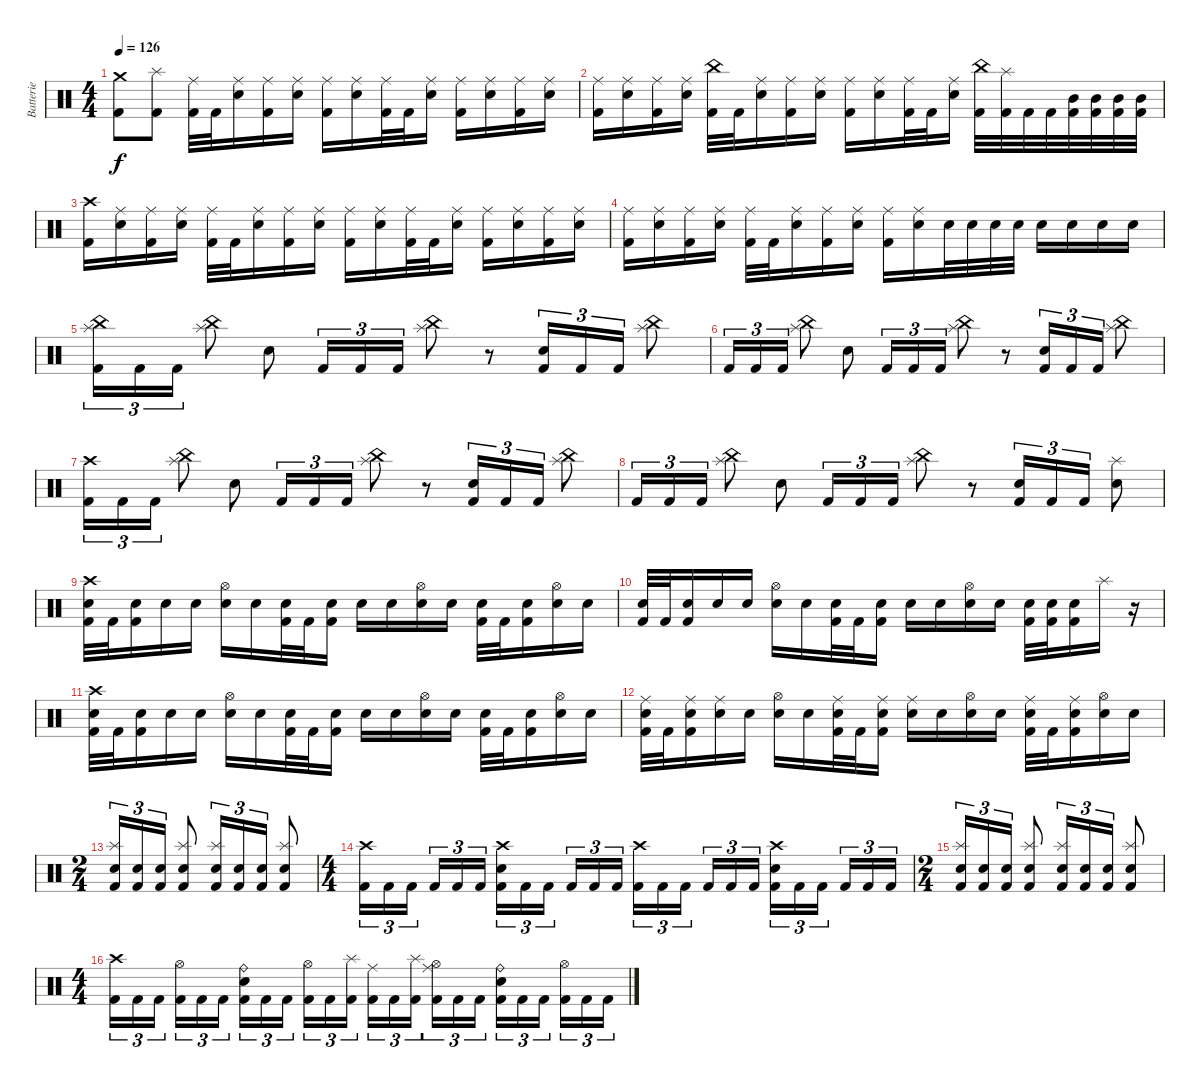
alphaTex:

\track ("Batterie" "Batterie") {instrument percussion}
\staff {score}
\articulation defaults
\ts (4 4)
\tempo 126
\clef neutral
\ks c
("Crash medium (hit)" "Kick (hit) 2").8{dy f} ("Splash (hit)" "Kick (hit) 2").8 ("Ride (middle)" "Kick (hit) 2").32 "Kick (hit) 2".32 ("Ride (middle)" "Electric Snare (hit)").16 ("Ride (middle)" "Kick (hit) 2").16 ("Ride (middle)" "Electric Snare (hit)").16 ("Ride (middle)" "Kick (hit) 2").16 ("Ride (middle)" "Electric Snare (hit)").16 ("Ride (middle)" "Kick (hit) 2").32 "Kick (hit) 2".32 ("Ride (middle)" "Electric Snare (hit)").16 ("Ride (middle)" "Kick (hit) 2").16 ("Ride (middle)" "Electric Snare (hit)").16 ("Ride (middle)" "Kick (hit) 2").16 ("Ride (middle)" "Electric Snare (hit)").16 |
("Ride (middle)" "Kick (hit) 2").16 ("Electric Snare (hit)" "Ride (middle)").16 ("Ride (middle)" "Kick (hit) 2").16 ("Ride (middle)" "Electric Snare (hit)").16 ("China (hit)" "Kick (hit) 2").32 "Kick (hit) 2".32 ("Ride (middle)" "Electric Snare (hit)").16 ("Ride (middle)" "Kick (hit) 2").16 ("Ride (middle)" "Electric Snare (hit)").16 ("Ride (middle)" "Kick (hit) 2").16 ("Ride (middle)" "Electric Snare (hit)").16 ("Kick (hit) 2" "Ride (middle)").32 "Kick (hit) 2".32 ("Ride (middle)" "Electric Snare (hit)").16 ("China (hit)" "Kick (hit) 2").32 ("Splash (hit)" "Kick (hit) 2").32 "Kick (hit) 2".32 "Kick (hit) 2".32 ("Mid Tom (hit)" "Kick (hit) 2").32 ("Mid Tom (hit)" "Kick (hit) 2").32 ("Mid Tom (hit)" "Kick (hit) 2").32 ("Mid Tom (hit)" "Kick (hit) 2").32 |
("Crash high (hit)" "Kick (hit) 2").16 ("Ride (middle)" "Electric Snare (hit)").16 ("Ride (middle)" "Kick (hit) 2").16 ("Ride (middle)" "Electric Snare (hit)").16 ("Ride (middle)" "Kick (hit) 2").32 "Kick (hit) 2".32 ("Ride (middle)" "Electric Snare (hit)").16 ("Ride (middle)" "Kick (hit) 2").16 ("Ride (middle)" "Electric Snare (hit)").16 ("Ride (middle)" "Kick (hit) 2").16 ("Ride (middle)" "Electric Snare (hit)").16 ("Ride (middle)" "Kick (hit) 2").32 "Kick (hit) 2".32 ("Ride (middle)" "Electric Snare (hit)").16 ("Ride (middle)" "Kick (hit) 2").16 ("Ride (middle)" "Electric Snare (hit)").16 ("Ride (middle)" "Kick (hit) 2").16 ("Ride (middle)" "Electric Snare (hit)").16 |
("Ride (middle)" "Kick (hit) 2").16 ("Ride (middle)" "Electric Snare (hit)").16 ("Ride (middle)" "Kick (hit) 2").16 ("Ride (middle)" "Electric Snare (hit)").16 ("Ride (middle)" "Kick (hit) 2").32 "Kick (hit) 2".32 ("Ride (middle)" "Electric Snare (hit)").16 ("Ride (middle)" "Kick (hit) 2").16 ("Ride (middle)" "Electric Snare (hit)").16 ("Ride (middle)" "Kick (hit) 2").16 ("Ride (middle)" "Electric Snare (hit)").16 "Electric Snare (hit)".32 "Electric Snare (hit)".32 "Electric Snare (hit)".32 "Electric Snare (hit)".32 "Electric Snare (hit)".16 "Electric Snare (hit)".16 "Electric Snare (hit)".16 "Electric Snare (hit)".16 |
("China (hit)" "Splash (hit)" "Kick (hit) 2").16{tu (3 2)} "Kick (hit) 2".16{tu (3 2)} "Kick (hit) 2".16{tu (3 2)} ("China (hit)" "Splash (hit)").8 "Electric Snare (hit)".8 "Kick (hit) 2".16{tu (3 2)} "Kick (hit) 2".16{tu (3 2)} "Kick (hit) 2".16{tu (3 2)} ("China (hit)" "Splash (hit)").8 r.8 ("Electric Snare (hit)" "Kick (hit) 2").16{tu (3 2)} "Kick (hit) 2".16{tu (3 2)} "Kick (hit) 2".16{tu (3 2)} ("Splash (hit)" "China (hit)").8 |
"Kick (hit) 2".16{tu (3 2)} "Kick (hit) 2".16{tu (3 2)} "Kick (hit) 2".16{tu (3 2)} ("Splash (hit)" "China (hit)").8 "Electric Snare (hit)".8 "Kick (hit) 2".16{tu (3 2)} "Kick (hit) 2".16{tu (3 2)} "Kick (hit) 2".16{tu (3 2)} ("Splash (hit)" "China (hit)").8 r.8 ("Electric Snare (hit)" "Kick (hit) 2").16{tu (3 2)} "Kick (hit) 2".16{tu (3 2)} "Kick (hit) 2".16{tu (3 2)} ("Splash (hit)" "China (hit)").8 |
("Crash high (hit)" "Kick (hit) 2").16{tu (3 2)} "Kick (hit) 2".16{tu (3 2)} "Kick (hit) 2".16{tu (3 2)} ("China (hit)" "Splash (hit)").8 "Electric Snare (hit)".8 "Kick (hit) 2".16{tu (3 2)} "Kick (hit) 2".16{tu (3 2)} "Kick (hit) 2".16{tu (3 2)} ("China (hit)" "Splash (hit)").8 r.8 ("Electric Snare (hit)" "Kick (hit) 2").16{tu (3 2)} "Kick (hit) 2".16{tu (3 2)} "Kick (hit) 2".16{tu (3 2)} ("Splash (hit)" "China (hit)").8 |
"Kick (hit) 2".16{tu (3 2)} "Kick (hit) 2".16{tu (3 2)} "Kick (hit) 2".16{tu (3 2)} ("China (hit)" "Splash (hit)").8 "Electric Snare (hit)".8 "Kick (hit) 2".16{tu (3 2)} "Kick (hit) 2".16{tu (3 2)} "Kick (hit) 2".16{tu (3 2)} ("China (hit)" "Splash (hit)").8 r.8 ("Electric Snare (hit)" "Kick (hit) 2").16{tu (3 2)} "Kick (hit) 2".16{tu (3 2)} "Kick (hit) 2".16{tu (3 2)} ("Splash (hit)" "Electric Snare (hit)").8 |
("Crash high (hit)" "Electric Snare (hit)" "Kick (hit) 2").32 "Kick (hit) 2".32 ("Electric Snare (hit)" "Kick (hit) 2").16 "Electric Snare (hit)".16 "Electric Snare (hit)".16 ("Hi-Hat (open)" "Electric Snare (hit)").16 "Electric Snare (hit)".16 ("Electric Snare (hit)" "Kick (hit) 2").32 "Kick (hit) 2".32 ("Electric Snare (hit)" "Kick (hit) 2").16 "Electric Snare (hit)".16 "Electric Snare (hit)".16 ("Hi-Hat (open)" "Electric Snare (hit)").16 "Electric Snare (hit)".16 ("Electric Snare (hit)" "Kick (hit) 2").32 "Kick (hit) 2".32 ("Electric Snare (hit)" "Kick (hit) 2").16 ("Hi-Hat (open)" "Electric Snare (hit)").16 "Electric Snare (hit)".16 |
("Electric Snare (hit)" "Kick (hit) 2").32 "Kick (hit) 2".32 ("Electric Snare (hit)" "Kick (hit) 2").16 "Electric Snare (hit)".16 "Electric Snare (hit)".16 ("Hi-Hat (open)" "Electric Snare (hit)").16 "Electric Snare (hit)".16 ("Electric Snare (hit)" "Kick (hit) 2").32 "Kick (hit) 2".32 ("Electric Snare (hit)" "Kick (hit) 2").16 "Electric Snare (hit)".16 "Electric Snare (hit)".16 ("Hi-Hat (open)" "Electric Snare (hit)").16 "Electric Snare (hit)".16 ("Kick (hit) 2" "Electric Snare (hit)").32 ("Kick (hit) 2" "Electric Snare (hit)").32 ("Kick (hit) 2" "Electric Snare (hit)").16 "Splash (hit)".16 r.16 |
("Crash high (hit)" "Electric Snare (hit)" "Kick (hit) 2").32 "Kick (hit) 2".32 ("Electric Snare (hit)" "Kick (hit) 2").16 "Electric Snare (hit)".16 "Electric Snare (hit)".16 ("Hi-Hat (open)" "Electric Snare (hit)").16 "Electric Snare (hit)".16 ("Electric Snare (hit)" "Kick (hit) 2").32 "Kick (hit) 2".32 ("Electric Snare (hit)" "Kick (hit) 2").16 "Electric Snare (hit)".16 "Electric Snare (hit)".16 ("Hi-Hat (open)" "Electric Snare (hit)").16 "Electric Snare (hit)".16 ("Electric Snare (hit)" "Kick (hit) 2").32 "Kick (hit) 2".32 ("Electric Snare (hit)" "Kick (hit) 2").16 ("Hi-Hat (open)" "Electric Snare (hit)").16 "Electric Snare (hit)".16 |
("Ride (middle)" "Electric Snare (hit)" "Kick (hit) 2").32 "Kick (hit) 2".32 ("Ride (middle)" "Electric Snare (hit)" "Kick (hit) 2").16 ("Ride (middle)" "Electric Snare (hit)").16 "Electric Snare (hit)".16 ("Hi-Hat (open)" "Electric Snare (hit)").16 "Electric Snare (hit)".16 ("Ride (middle)" "Electric Snare (hit)" "Kick (hit) 2").32 "Kick (hit) 2".32 ("Ride (middle)" "Electric Snare (hit)" "Kick (hit) 2").16 ("Ride (middle)" "Electric Snare (hit)").16 "Electric Snare (hit)".16 ("Hi-Hat (open)" "Electric Snare (hit)").16 "Electric Snare (hit)".16 ("Ride (middle)" "Electric Snare (hit)" "Kick (hit) 2").32 "Kick (hit) 2".32 ("Ride (middle)" "Electric Snare (hit)" "Kick (hit) 2").16 ("Hi-Hat (open)" "Electric Snare (hit)").16 "Electric Snare (hit)".16 |
\ts (2 4)
("Electric Snare (hit)" "Splash (hit)" "Kick (hit) 2").16{tu (3 2)} ("Electric Snare (hit)" "Kick (hit) 2").16{tu (3 2)} ("Electric Snare (hit)" "Kick (hit) 2").16{tu (3 2)} ("Electric Snare (hit)" "Splash (hit)" "Kick (hit) 2").8 ("Electric Snare (hit)" "Splash (hit)" "Kick (hit) 2").16{tu (3 2)} ("Electric Snare (hit)" "Kick (hit) 2").16{tu (3 2)} ("Electric Snare (hit)" "Kick (hit) 2").16{tu (3 2)} ("Electric Snare (hit)" "Splash (hit)" "Kick (hit) 2").8 |
\ts (4 4)
("Crash high (hit)" "Kick (hit) 2").16{tu (3 2)} "Kick (hit) 2".16{tu (3 2)} "Kick (hit) 2".16{tu (3 2)} "Kick (hit) 2".16{tu (3 2)} "Kick (hit) 2".16{tu (3 2)} "Kick (hit) 2".16{tu (3 2)} ("Electric Snare (hit)" "Crash high (hit)" "Kick (hit) 2").16{tu (3 2)} "Kick (hit) 2".16{tu (3 2)} "Kick (hit) 2".16{tu (3 2)} "Kick (hit) 2".16{tu (3 2)} "Kick (hit) 2".16{tu (3 2)} "Kick (hit) 2".16{tu (3 2)} ("Crash high (hit)" "Kick (hit) 2").16{tu (3 2)} "Kick (hit) 2".16{tu (3 2)} "Kick (hit) 2".16{tu (3 2)} "Kick (hit) 2".16{tu (3 2)} "Kick (hit) 2".16{tu (3 2)} "Kick (hit) 2".16{tu (3 2)} ("Electric Snare (hit)" "Crash high (hit)" "Kick (hit) 2").16{tu (3 2)} "Kick (hit) 2".16{tu (3 2)} "Kick (hit) 2".16{tu (3 2)} "Kick (hit) 2".16{tu (3 2)} "Kick (hit) 2".16{tu (3 2)} "Kick (hit) 2".16{tu (3 2)} |
\ts (2 4)
("Electric Snare (hit)" "Splash (hit)" "Kick (hit) 2").16{tu (3 2)} ("Electric Snare (hit)" "Kick (hit) 2").16{tu (3 2)} ("Electric Snare (hit)" "Kick (hit) 2").16{tu (3 2)} ("Electric Snare (hit)" "Splash (hit)" "Kick (hit) 2").8 ("Electric Snare (hit)" "Splash (hit)" "Kick (hit) 2").16{tu (3 2)} ("Electric Snare (hit)" "Kick (hit) 2").16{tu (3 2)} ("Electric Snare (hit)" "Kick (hit) 2").16{tu (3 2)} ("Electric Snare (hit)" "Splash (hit)" "Kick (hit) 2").8 |
\ts (4 4)
("Crash high (hit)" "Kick (hit) 2").16{tu (3 2)} "Kick (hit) 2".16{tu (3 2)} "Kick (hit) 2".16{tu (3 2)} ("Hi-Hat (open)" "Kick (hit) 2").16{tu (3 2)} "Kick (hit) 2".16{tu (3 2)} "Kick (hit) 2".16{tu (3 2)} ("Ride (bell)" "Electric Snare (hit)" "Kick (hit) 2").16{tu (3 2)} "Kick (hit) 2".16{tu (3 2)} "Kick (hit) 2".16{tu (3 2)} ("Hi-Hat (open)" "Kick (hit) 2").16{tu (3 2)} "Kick (hit) 2".16{tu (3 2)} ("Splash (hit)" "Kick (hit) 2").16{tu (3 2)} ("Ride (middle)" "Kick (hit) 2").16{tu (3 2)} "Kick (hit) 2".16{tu (3 2)} ("Splash (hit)" "Kick (hit) 2").16{tu (3 2)} ("Ride (middle)" "Hi-Hat (open)" "Kick (hit) 2").16{tu (3 2)} "Kick (hit) 2".16{tu (3 2)} "Kick (hit) 2".16{tu (3 2)} ("Ride (bell)" "Electric Snare (hit)" "Kick (hit) 2").16{tu (3 2)} "Kick (hit) 2".16{tu (3 2)} "Kick (hit) 2".16{tu (3 2)} ("Hi-Hat (open)" "Kick (hit) 2").16{tu (3 2)} "Kick (hit) 2".16{tu (3 2)} "Kick (hit) 2".16{tu (3 2)}
